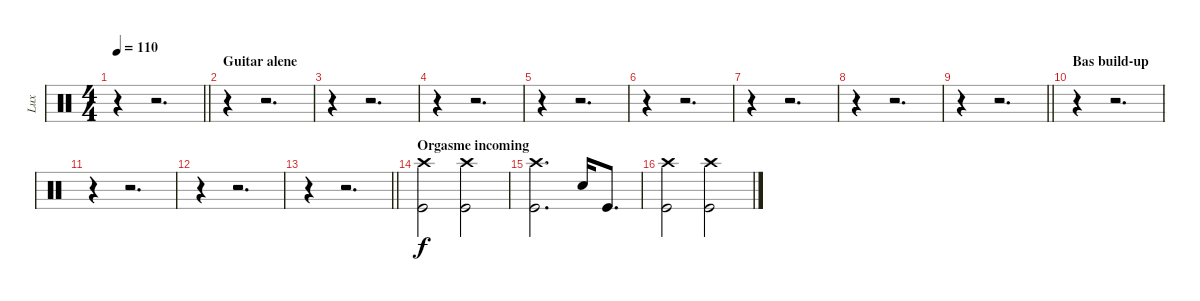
\track ("Lux" "Lux") {mute instrument percussion}
\staff {score}
\articulation defaults
\ts (4 4)
\tempo 110
\clef neutral
\barLineRight lightlight
\ks c
r.4{dy f} r.2{d} |
\section ("" "Guitar alene")
r.4 r.2{d} |
r.4 r.2{d} |
r.4 r.2{d} |
r.4 r.2{d} |
r.4 r.2{d} |
r.4 r.2{d} |
r.4 r.2{d} |
\barLineRight lightlight
r.4 r.2{d} |
\section ("" "Bas build-up")
r.4 r.2{d} |
r.4 r.2{d} |
r.4 r.2{d} |
\barLineRight lightlight
r.4 r.2{d} |
\section ("" "Orgasme incoming")
("Crash high (hit)" "Kick (hit)").2 ("Crash high (hit)" "Kick (hit)").2 |
("Crash high (hit)" "Kick (hit)").2{d} "Snare (hit) 2".16 "Kick (hit)".8{d} |
("Crash high (hit)" "Kick (hit)").2 ("Crash high (hit)" "Kick (hit)").2
